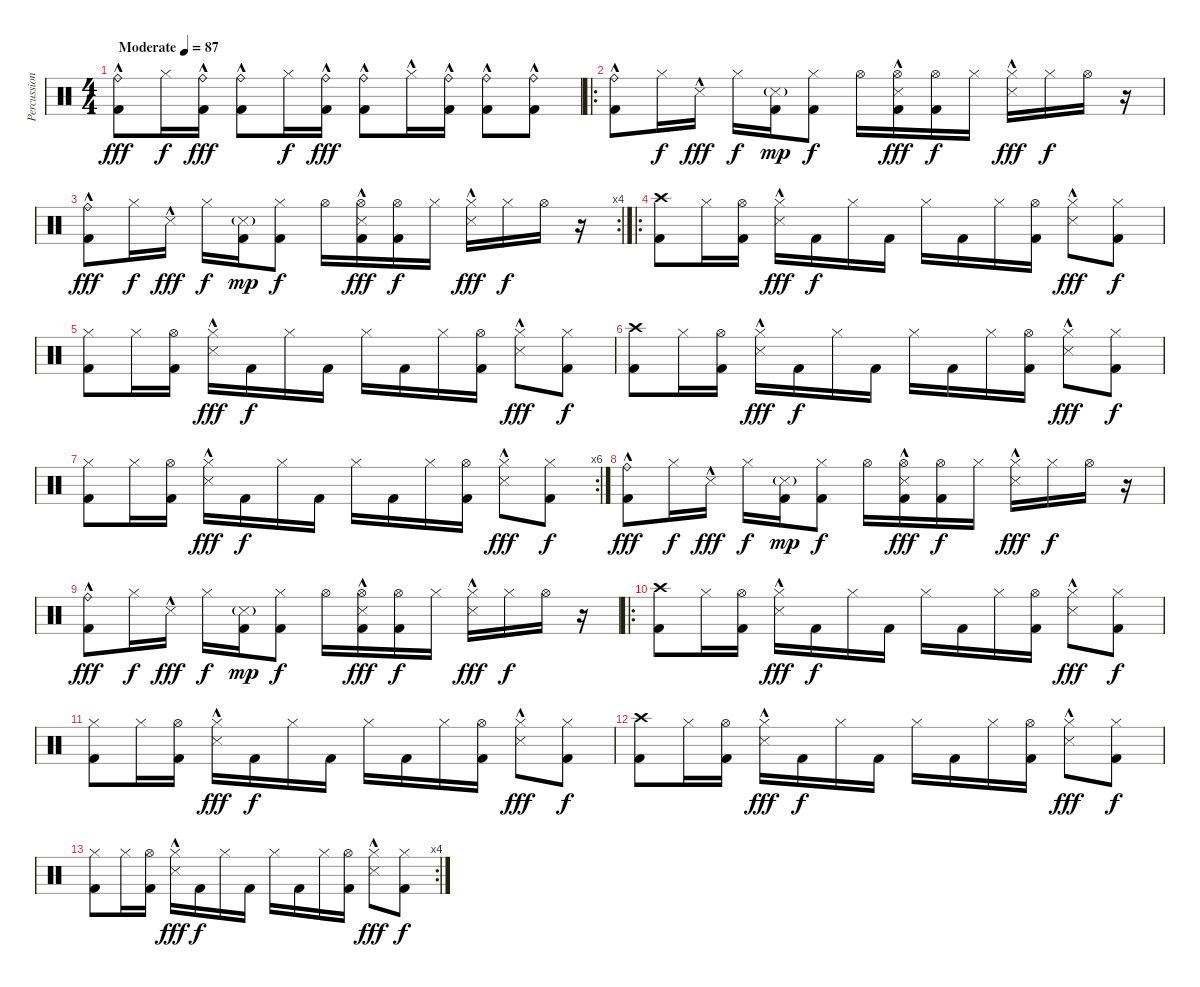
\track ("Percussion" "Percussion") {instrument percussion}
\staff {score}
\articulation defaults
\ts (4 4)
\tempo (87 "Moderate")
\clef neutral
\ks c
("Ride (bell)"{hac} "Kick (hit) 2").8{dy fff} "Hi-Hat (closed)".16{dy f} ("Ride (bell)"{hac} "Kick (hit) 2").16{dy fff} ("Ride (bell)"{hac} "Kick (hit) 2").8 "Hi-Hat (closed)".16{dy f} ("Ride (bell)"{hac} "Kick (hit) 2").16{dy fff} ("Ride (bell)"{hac} "Kick (hit) 2").8 "Hi-Hat (closed)"{hac}.16 ("Ride (bell)"{hac} "Kick (hit) 2").16 ("Ride (bell)"{hac} "Kick (hit) 2").8 ("Ride (bell)"{hac} "Kick (hit) 2").8 |
\ro
("Ride (bell)"{hac} "Kick (hit) 2").8 "Hi-Hat (closed)".16{dy f} "Snare (side stick) 3"{hac}.16{dy fff} "Hi-Hat (closed)".16{dy f} ("Snare (side stick) 3"{g} "Kick (hit) 2").16{dy mp} ("Hi-Hat (closed)" "Kick (hit) 2").8{dy f} "Hi-Hat (open)".16 ("Hi-Hat (open)" "Snare (side stick) 3"{hac} "Kick (hit) 2").16{dy fff} ("Hi-Hat (open)" "Kick (hit) 2").16{dy f} "Hi-Hat (closed)".16 ("Hi-Hat (closed)" "Snare (side stick) 3"{hac}).16{dy fff} "Hi-Hat (closed)".16{dy f} "Hi-Hat (open)".16 r.16 |
\rc 4
("Ride (bell)"{hac} "Kick (hit) 2").8{dy fff} "Hi-Hat (closed)".16{dy f} "Snare (side stick) 3"{hac}.16{dy fff} "Hi-Hat (closed)".16{dy f} ("Snare (side stick) 3"{g} "Kick (hit) 2").16{dy mp} ("Hi-Hat (closed)" "Kick (hit) 2").8{dy f} "Hi-Hat (open)".16 ("Hi-Hat (open)" "Snare (side stick) 3"{hac} "Kick (hit) 2").16{dy fff} ("Hi-Hat (open)" "Kick (hit) 2").16{dy f} "Hi-Hat (closed)".16 ("Hi-Hat (closed)" "Snare (side stick) 3"{hac}).16{dy fff} "Hi-Hat (closed)".16{dy f} "Hi-Hat (open)".16 r.16 |
\ro
("Crash high (hit)" "Kick (hit) 2").8 "Hi-Hat (closed)".16 ("Hi-Hat (open)" "Kick (hit) 2").16 ("Hi-Hat (closed)" "Snare (side stick) 3"{hac}).16{dy fff} "Kick (hit) 2".16{dy f} "Hi-Hat (closed)".16 "Kick (hit) 2".16 "Hi-Hat (closed)".16 "Kick (hit) 2".16 "Hi-Hat (closed)".16 ("Hi-Hat (open)" "Kick (hit) 2").16 ("Hi-Hat (closed)" "Snare (side stick) 3"{hac}).8{dy fff} ("Hi-Hat (closed)" "Kick (hit) 2").8{dy f} |
("Hi-Hat (closed)" "Kick (hit) 2").8 "Hi-Hat (closed)".16 ("Hi-Hat (open)" "Kick (hit) 2").16 ("Hi-Hat (closed)" "Snare (side stick) 3"{hac}).16{dy fff} "Kick (hit) 2".16{dy f} "Hi-Hat (closed)".16 "Kick (hit) 2".16 "Hi-Hat (closed)".16 "Kick (hit) 2".16 "Hi-Hat (closed)".16 ("Hi-Hat (open)" "Kick (hit) 2").16 ("Hi-Hat (closed)" "Snare (side stick) 3"{hac}).8{dy fff} ("Hi-Hat (closed)" "Kick (hit) 2").8{dy f} |
("Crash high (hit)" "Kick (hit) 2").8 "Hi-Hat (closed)".16 ("Hi-Hat (open)" "Kick (hit) 2").16 ("Hi-Hat (closed)" "Snare (side stick) 3"{hac}).16{dy fff} "Kick (hit) 2".16{dy f} "Hi-Hat (closed)".16 "Kick (hit) 2".16 "Hi-Hat (closed)".16 "Kick (hit) 2".16 "Hi-Hat (closed)".16 ("Hi-Hat (open)" "Kick (hit) 2").16 ("Hi-Hat (closed)" "Snare (side stick) 3"{hac}).8{dy fff} ("Hi-Hat (closed)" "Kick (hit) 2").8{dy f} |
\rc 6
("Hi-Hat (closed)" "Kick (hit) 2").8 "Hi-Hat (closed)".16 ("Hi-Hat (open)" "Kick (hit) 2").16 ("Hi-Hat (closed)" "Snare (side stick) 3"{hac}).16{dy fff} "Kick (hit) 2".16{dy f} "Hi-Hat (closed)".16 "Kick (hit) 2".16 "Hi-Hat (closed)".16 "Kick (hit) 2".16 "Hi-Hat (closed)".16 ("Hi-Hat (open)" "Kick (hit) 2").16 ("Hi-Hat (closed)" "Snare (side stick) 3"{hac}).8{dy fff} ("Hi-Hat (closed)" "Kick (hit) 2").8{dy f} |
("Ride (bell)"{hac} "Kick (hit) 2").8{dy fff} "Hi-Hat (closed)".16{dy f} "Snare (side stick) 3"{hac}.16{dy fff} "Hi-Hat (closed)".16{dy f} ("Snare (side stick) 3"{g} "Kick (hit) 2").16{dy mp} ("Hi-Hat (closed)" "Kick (hit) 2").8{dy f} "Hi-Hat (open)".16 ("Hi-Hat (open)" "Snare (side stick) 3"{hac} "Kick (hit) 2").16{dy fff} ("Hi-Hat (open)" "Kick (hit) 2").16{dy f} "Hi-Hat (closed)".16 ("Hi-Hat (closed)" "Snare (side stick) 3"{hac}).16{dy fff} "Hi-Hat (closed)".16{dy f} "Hi-Hat (open)".16 r.16 |
("Ride (bell)"{hac} "Kick (hit) 2").8{dy fff} "Hi-Hat (closed)".16{dy f} "Snare (side stick) 3"{hac}.16{dy fff} "Hi-Hat (closed)".16{dy f} ("Snare (side stick) 3"{g} "Kick (hit) 2").16{dy mp} ("Hi-Hat (closed)" "Kick (hit) 2").8{dy f} "Hi-Hat (open)".16 ("Hi-Hat (open)" "Snare (side stick) 3"{hac} "Kick (hit) 2").16{dy fff} ("Hi-Hat (open)" "Kick (hit) 2").16{dy f} "Hi-Hat (closed)".16 ("Hi-Hat (closed)" "Snare (side stick) 3"{hac}).16{dy fff} "Hi-Hat (closed)".16{dy f} "Hi-Hat (open)".16 r.16 |
\ro
("Crash high (hit)" "Kick (hit) 2").8 "Hi-Hat (closed)".16 ("Hi-Hat (open)" "Kick (hit) 2").16 ("Hi-Hat (closed)" "Snare (side stick) 3"{hac}).16{dy fff} "Kick (hit) 2".16{dy f} "Hi-Hat (closed)".16 "Kick (hit) 2".16 "Hi-Hat (closed)".16 "Kick (hit) 2".16 "Hi-Hat (closed)".16 ("Hi-Hat (open)" "Kick (hit) 2").16 ("Hi-Hat (closed)" "Snare (side stick) 3"{hac}).8{dy fff} ("Hi-Hat (closed)" "Kick (hit) 2").8{dy f} |
("Hi-Hat (closed)" "Kick (hit) 2").8 "Hi-Hat (closed)".16 ("Hi-Hat (open)" "Kick (hit) 2").16 ("Hi-Hat (closed)" "Snare (side stick) 3"{hac}).16{dy fff} "Kick (hit) 2".16{dy f} "Hi-Hat (closed)".16 "Kick (hit) 2".16 "Hi-Hat (closed)".16 "Kick (hit) 2".16 "Hi-Hat (closed)".16 ("Hi-Hat (open)" "Kick (hit) 2").16 ("Hi-Hat (closed)" "Snare (side stick) 3"{hac}).8{dy fff} ("Hi-Hat (closed)" "Kick (hit) 2").8{dy f} |
("Crash high (hit)" "Kick (hit) 2").8 "Hi-Hat (closed)".16 ("Hi-Hat (open)" "Kick (hit) 2").16 ("Hi-Hat (closed)" "Snare (side stick) 3"{hac}).16{dy fff} "Kick (hit) 2".16{dy f} "Hi-Hat (closed)".16 "Kick (hit) 2".16 "Hi-Hat (closed)".16 "Kick (hit) 2".16 "Hi-Hat (closed)".16 ("Hi-Hat (open)" "Kick (hit) 2").16 ("Hi-Hat (closed)" "Snare (side stick) 3"{hac}).8{dy fff} ("Hi-Hat (closed)" "Kick (hit) 2").8{dy f} |
\rc 4
("Hi-Hat (closed)" "Kick (hit) 2").8 "Hi-Hat (closed)".16 ("Hi-Hat (open)" "Kick (hit) 2").16 ("Hi-Hat (closed)" "Snare (side stick) 3"{hac}).16{dy fff} "Kick (hit) 2".16{dy f} "Hi-Hat (closed)".16 "Kick (hit) 2".16 "Hi-Hat (closed)".16 "Kick (hit) 2".16 "Hi-Hat (closed)".16 ("Hi-Hat (open)" "Kick (hit) 2").16 ("Hi-Hat (closed)" "Snare (side stick) 3"{hac}).8{dy fff} ("Hi-Hat (closed)" "Kick (hit) 2").8{dy f}
